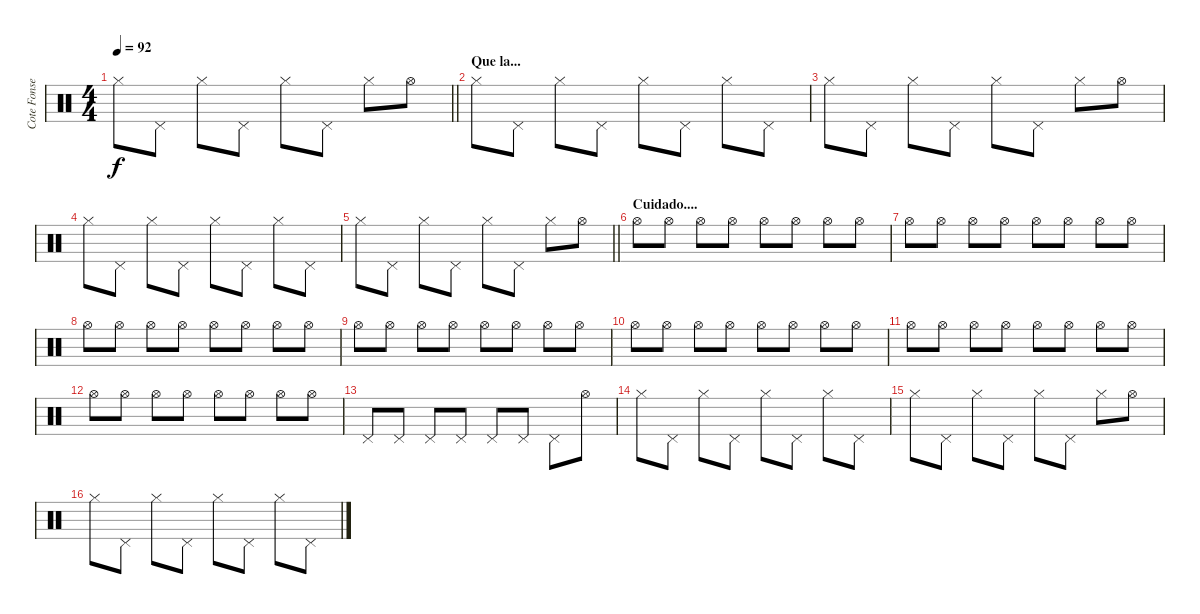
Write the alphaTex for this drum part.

\track ("Cote Fonsea" "Cote Fonse") {instrument percussion}
\staff {score}
\articulation defaults
\ts (4 4)
\tempo 92
\clef neutral
\barLineRight lightlight
\ks c "Hi-Hat (closed)".8{dy f} "Pedal Hi-Hat (hit)".8 "Hi-Hat (closed)".8 "Pedal Hi-Hat (hit)".8 "Hi-Hat (closed)".8 "Pedal Hi-Hat (hit)".8 "Hi-Hat (closed)".8 "Hi-Hat (open)".8
|
\section ("" "Que la...")
"Hi-Hat (closed)".8 "Pedal Hi-Hat (hit)".8 "Hi-Hat (closed)".8 "Pedal Hi-Hat (hit)".8 "Hi-Hat (closed)".8 "Pedal Hi-Hat (hit)".8 "Hi-Hat (closed)".8 "Pedal Hi-Hat (hit)".8 |
"Hi-Hat (closed)".8 "Pedal Hi-Hat (hit)".8 "Hi-Hat (closed)".8 "Pedal Hi-Hat (hit)".8 "Hi-Hat (closed)".8 "Pedal Hi-Hat (hit)".8 "Hi-Hat (closed)".8 "Hi-Hat (open)".8 |
"Hi-Hat (closed)".8 "Pedal Hi-Hat (hit)".8 "Hi-Hat (closed)".8 "Pedal Hi-Hat (hit)".8 "Hi-Hat (closed)".8 "Pedal Hi-Hat (hit)".8 "Hi-Hat (closed)".8 "Pedal Hi-Hat (hit)".8 |
\barLineRight lightlight "Hi-Hat (closed)".8 "Pedal Hi-Hat (hit)".8 "Hi-Hat (closed)".8 "Pedal Hi-Hat (hit)".8 "Hi-Hat (closed)".8 "Pedal Hi-Hat (hit)".8 "Hi-Hat (closed)".8 "Hi-Hat (open)".8
|
\section ("" "Cuidado....")
"Hi-Hat (open)".8 "Hi-Hat (open)".8 "Hi-Hat (open)".8 "Hi-Hat (open)".8 "Hi-Hat (open)".8 "Hi-Hat (open)".8 "Hi-Hat (open)".8 "Hi-Hat (open)".8 |
"Hi-Hat (open)".8 "Hi-Hat (open)".8 "Hi-Hat (open)".8 "Hi-Hat (open)".8 "Hi-Hat (open)".8 "Hi-Hat (open)".8 "Hi-Hat (open)".8 "Hi-Hat (open)".8 |
"Hi-Hat (open)".8 "Hi-Hat (open)".8 "Hi-Hat (open)".8 "Hi-Hat (open)".8 "Hi-Hat (open)".8 "Hi-Hat (open)".8 "Hi-Hat (open)".8 "Hi-Hat (open)".8 |
"Hi-Hat (open)".8 "Hi-Hat (open)".8 "Hi-Hat (open)".8 "Hi-Hat (open)".8 "Hi-Hat (open)".8 "Hi-Hat (open)".8 "Hi-Hat (open)".8 "Hi-Hat (open)".8 |
"Hi-Hat (open)".8 "Hi-Hat (open)".8 "Hi-Hat (open)".8 "Hi-Hat (open)".8 "Hi-Hat (open)".8 "Hi-Hat (open)".8 "Hi-Hat (open)".8 "Hi-Hat (open)".8 |
"Hi-Hat (open)".8 "Hi-Hat (open)".8 "Hi-Hat (open)".8 "Hi-Hat (open)".8 "Hi-Hat (open)".8 "Hi-Hat (open)".8 "Hi-Hat (open)".8 "Hi-Hat (open)".8 |
"Hi-Hat (open)".8 "Hi-Hat (open)".8 "Hi-Hat (open)".8 "Hi-Hat (open)".8 "Hi-Hat (open)".8 "Hi-Hat (open)".8 "Hi-Hat (open)".8 "Hi-Hat (open)".8 |
"Pedal Hi-Hat (hit)".8 "Pedal Hi-Hat (hit)".8 "Pedal Hi-Hat (hit)".8 "Pedal Hi-Hat (hit)".8 "Pedal Hi-Hat (hit)".8 "Pedal Hi-Hat (hit)".8 "Pedal Hi-Hat (hit)".8 "Hi-Hat (open)".8 |
"Hi-Hat (closed)".8 "Pedal Hi-Hat (hit)".8 "Hi-Hat (closed)".8 "Pedal Hi-Hat (hit)".8 "Hi-Hat (closed)".8 "Pedal Hi-Hat (hit)".8 "Hi-Hat (closed)".8 "Pedal Hi-Hat (hit)".8 |
"Hi-Hat (closed)".8 "Pedal Hi-Hat (hit)".8 "Hi-Hat (closed)".8 "Pedal Hi-Hat (hit)".8 "Hi-Hat (closed)".8 "Pedal Hi-Hat (hit)".8 "Hi-Hat (closed)".8 "Hi-Hat (open)".8 |
"Hi-Hat (closed)".8 "Pedal Hi-Hat (hit)".8 "Hi-Hat (closed)".8 "Pedal Hi-Hat (hit)".8 "Hi-Hat (closed)".8 "Pedal Hi-Hat (hit)".8 "Hi-Hat (closed)".8 "Pedal Hi-Hat (hit)".8
